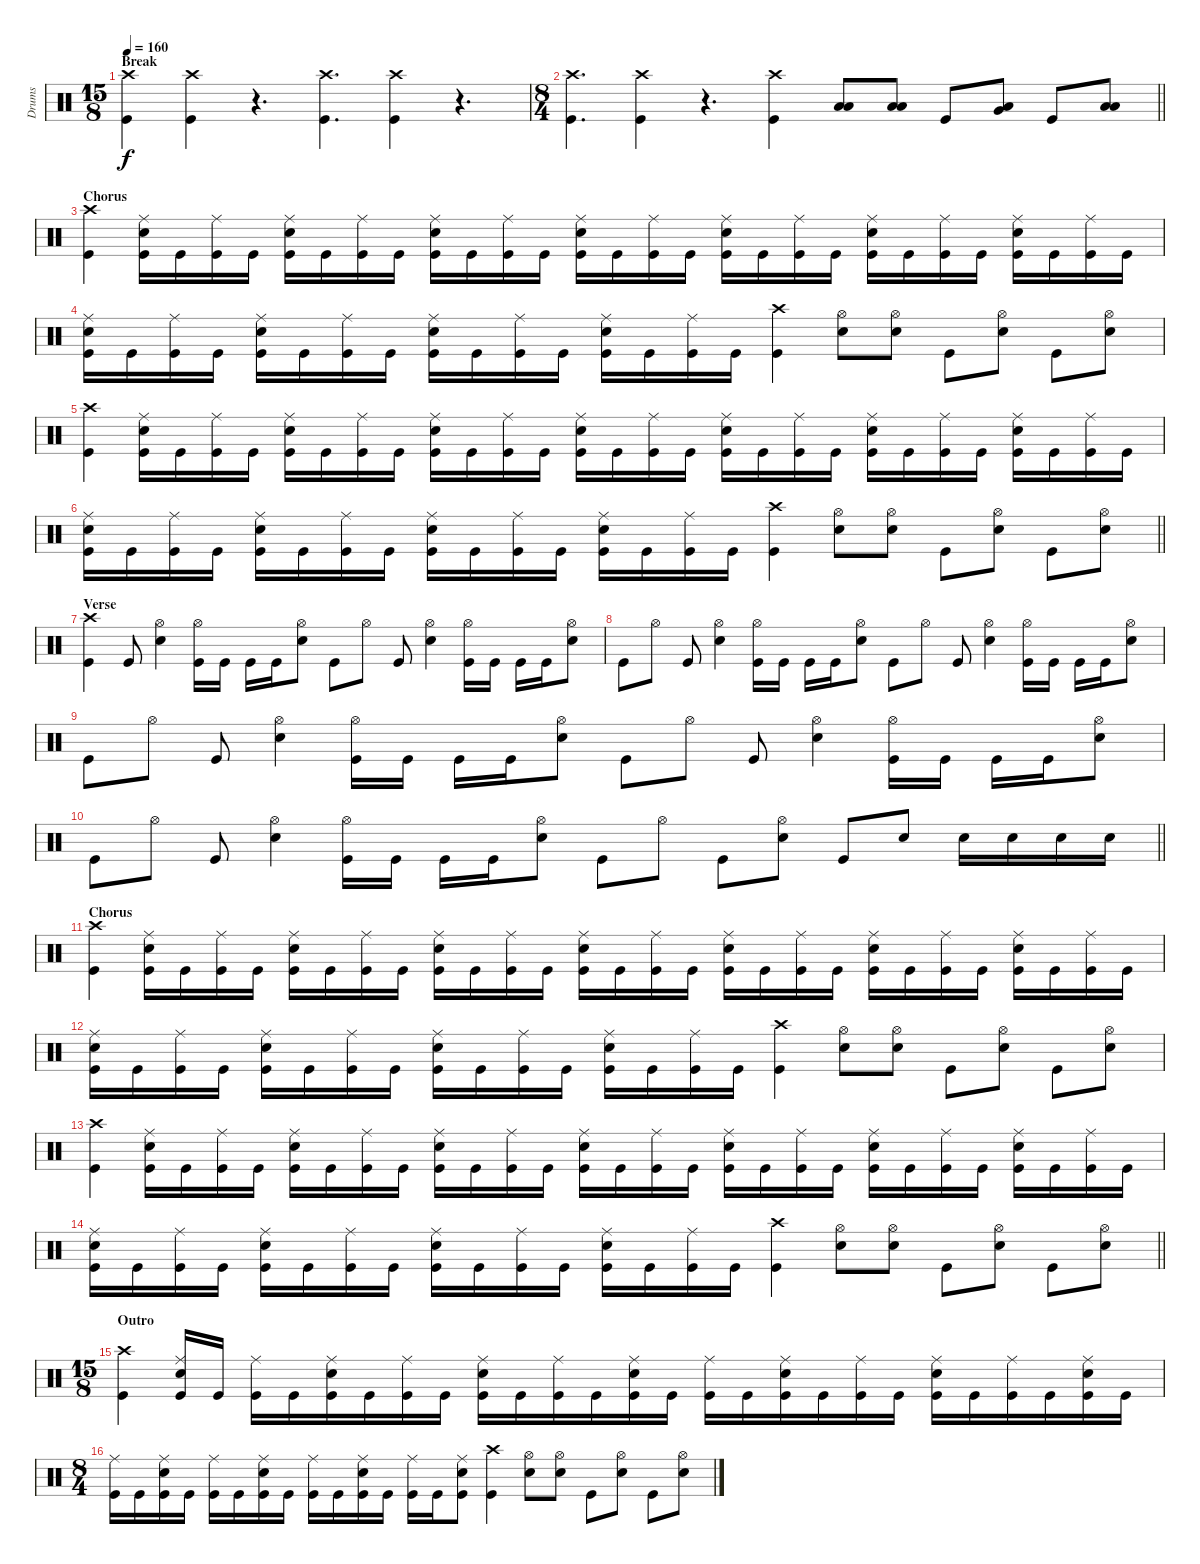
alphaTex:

\track ("Drums" "Drums") {instrument percussion}
\staff {score}
\articulation defaults
\ts (15 8)
\section ("" "Break")
\tempo 160
\clef neutral
\ks c
("Crash high (hit)" "Kick (hit)").4{dy f} ("Crash high (hit)" "Kick (hit)").4 r.4{d} ("Crash high (hit)" "Kick (hit)").4{d} ("Crash high (hit)" "Kick (hit)").4 r.4{d} |
\ts (8 4)
\barLineRight lightlight
("Crash high (hit)" "Kick (hit)").4{d} ("Crash high (hit)" "Kick (hit)").4 r.4{d} ("Crash high (hit)" "Kick (hit)").4 ("Low Floor Tom (hit)" "Low Tom (hit)").8 ("Low Floor Tom (hit)" "Low Tom (hit)").8 "Kick (hit)".8 ("Low Floor Tom (hit)" "Very Low Tom (hit)").8 "Kick (hit)".8 ("Low Floor Tom (hit)" "Low Floor Tom (hit)").8 |
\section ("" "Chorus")
("Crash high (hit)" "Kick (hit)").4 ("Ride (middle)" "Snare (hit) 2" "Kick (hit)").16 "Kick (hit)".16 ("Ride (middle)" "Kick (hit)").16 "Kick (hit)".16 ("Ride (middle)" "Snare (hit) 2" "Kick (hit)").16 "Kick (hit)".16 ("Ride (middle)" "Kick (hit)").16 "Kick (hit)".16 ("Ride (middle)" "Snare (hit) 2" "Kick (hit)").16 "Kick (hit)".16 ("Ride (middle)" "Kick (hit)").16 "Kick (hit)".16 ("Ride (middle)" "Snare (hit) 2" "Kick (hit)").16 "Kick (hit)".16 ("Ride (middle)" "Kick (hit)").16 "Kick (hit)".16 ("Ride (middle)" "Snare (hit) 2" "Kick (hit)").16 "Kick (hit)".16 ("Ride (middle)" "Kick (hit)").16 "Kick (hit)".16 ("Ride (middle)" "Snare (hit) 2" "Kick (hit)").16 "Kick (hit)".16 ("Ride (middle)" "Kick (hit)").16 "Kick (hit)".16 ("Ride (middle)" "Snare (hit) 2" "Kick (hit)").16 "Kick (hit)".16 ("Ride (middle)" "Kick (hit)").16 "Kick (hit)".16 |
("Ride (middle)" "Snare (hit) 2" "Kick (hit)").16 "Kick (hit)".16 ("Ride (middle)" "Kick (hit)").16 "Kick (hit)".16 ("Ride (middle)" "Snare (hit) 2" "Kick (hit)").16 "Kick (hit)".16 ("Ride (middle)" "Kick (hit)").16 "Kick (hit)".16 ("Ride (middle)" "Snare (hit) 2" "Kick (hit)").16 "Kick (hit)".16 ("Ride (middle)" "Kick (hit)").16 "Kick (hit)".16 ("Ride (middle)" "Snare (hit) 2" "Kick (hit)").16 "Kick (hit)".16 ("Ride (middle)" "Kick (hit)").16 "Kick (hit)".16 ("Crash high (hit)" "Kick (hit)").4 ("Hi-Hat (open)" "Snare (hit) 2").8 ("Hi-Hat (open)" "Snare (hit) 2").8 "Kick (hit)".8 ("Hi-Hat (open)" "Snare (hit) 2").8 "Kick (hit)".8 ("Hi-Hat (open)" "Snare (hit) 2").8 |
("Crash high (hit)" "Kick (hit)").4 ("Ride (middle)" "Snare (hit) 2" "Kick (hit)").16 "Kick (hit)".16 ("Ride (middle)" "Kick (hit)").16 "Kick (hit)".16 ("Ride (middle)" "Snare (hit) 2" "Kick (hit)").16 "Kick (hit)".16 ("Ride (middle)" "Kick (hit)").16 "Kick (hit)".16 ("Ride (middle)" "Snare (hit) 2" "Kick (hit)").16 "Kick (hit)".16 ("Ride (middle)" "Kick (hit)").16 "Kick (hit)".16 ("Ride (middle)" "Snare (hit) 2" "Kick (hit)").16 "Kick (hit)".16 ("Ride (middle)" "Kick (hit)").16 "Kick (hit)".16 ("Ride (middle)" "Snare (hit) 2" "Kick (hit)").16 "Kick (hit)".16 ("Ride (middle)" "Kick (hit)").16 "Kick (hit)".16 ("Ride (middle)" "Snare (hit) 2" "Kick (hit)").16 "Kick (hit)".16 ("Ride (middle)" "Kick (hit)").16 "Kick (hit)".16 ("Ride (middle)" "Snare (hit) 2" "Kick (hit)").16 "Kick (hit)".16 ("Ride (middle)" "Kick (hit)").16 "Kick (hit)".16 |
\barLineRight lightlight
("Ride (middle)" "Snare (hit) 2" "Kick (hit)").16 "Kick (hit)".16 ("Ride (middle)" "Kick (hit)").16 "Kick (hit)".16 ("Ride (middle)" "Snare (hit) 2" "Kick (hit)").16 "Kick (hit)".16 ("Ride (middle)" "Kick (hit)").16 "Kick (hit)".16 ("Ride (middle)" "Snare (hit) 2" "Kick (hit)").16 "Kick (hit)".16 ("Ride (middle)" "Kick (hit)").16 "Kick (hit)".16 ("Ride (middle)" "Snare (hit) 2" "Kick (hit)").16 "Kick (hit)".16 ("Ride (middle)" "Kick (hit)").16 "Kick (hit)".16 ("Crash high (hit)" "Kick (hit)").4 ("Hi-Hat (open)" "Snare (hit) 2").8 ("Hi-Hat (open)" "Snare (hit) 2").8 "Kick (hit)".8 ("Hi-Hat (open)" "Snare (hit) 2").8 "Kick (hit)".8 ("Hi-Hat (open)" "Snare (hit) 2").8 |
\section ("" "Verse")
("Crash high (hit)" "Kick (hit)").4 "Kick (hit)".8 ("Hi-Hat (open)" "Snare (hit) 2").4 ("Hi-Hat (open)" "Kick (hit)").16 "Kick (hit)".16 "Kick (hit)".16 "Kick (hit)".16 ("Hi-Hat (open)" "Snare (hit) 2").8 "Kick (hit)".8 "Hi-Hat (open)".8 "Kick (hit)".8 ("Hi-Hat (open)" "Snare (hit) 2").4 ("Hi-Hat (open)" "Kick (hit)").16 "Kick (hit)".16 "Kick (hit)".16 "Kick (hit)".16 ("Hi-Hat (open)" "Snare (hit) 2").8 |
"Kick (hit)".8 "Hi-Hat (open)".8 "Kick (hit)".8 ("Hi-Hat (open)" "Snare (hit) 2").4 ("Hi-Hat (open)" "Kick (hit)").16 "Kick (hit)".16 "Kick (hit)".16 "Kick (hit)".16 ("Hi-Hat (open)" "Snare (hit) 2").8 "Kick (hit)".8 "Hi-Hat (open)".8 "Kick (hit)".8 ("Hi-Hat (open)" "Snare (hit) 2").4 ("Hi-Hat (open)" "Kick (hit)").16 "Kick (hit)".16 "Kick (hit)".16 "Kick (hit)".16 ("Hi-Hat (open)" "Snare (hit) 2").8 |
"Kick (hit)".8 "Hi-Hat (open)".8 "Kick (hit)".8 ("Hi-Hat (open)" "Snare (hit) 2").4 ("Hi-Hat (open)" "Kick (hit)").16 "Kick (hit)".16 "Kick (hit)".16 "Kick (hit)".16 ("Hi-Hat (open)" "Snare (hit) 2").8 "Kick (hit)".8 "Hi-Hat (open)".8 "Kick (hit)".8 ("Hi-Hat (open)" "Snare (hit) 2").4 ("Hi-Hat (open)" "Kick (hit)").16 "Kick (hit)".16 "Kick (hit)".16 "Kick (hit)".16 ("Hi-Hat (open)" "Snare (hit) 2").8 |
\barLineRight lightlight "Kick (hit)".8 "Hi-Hat (open)".8 "Kick (hit)".8
("Hi-Hat (open)" "Snare (hit) 2").4 ("Hi-Hat (open)" "Kick (hit)").16 "Kick (hit)".16 "Kick (hit)".16 "Kick (hit)".16 ("Hi-Hat (open)" "Snare (hit) 2").8 "Kick (hit)".8 "Hi-Hat (open)".8 "Kick (hit)".8 ("Hi-Hat (open)" "Snare (hit) 2").8 "Kick (hit)".8 "Snare (hit) 2".8 "Snare (hit) 2".16 "Snare (hit) 2".16 "Snare (hit) 2".16 "Snare (hit) 2".16 |
\section ("" "Chorus")
("Crash high (hit)" "Kick (hit)").4 ("Ride (middle)" "Snare (hit) 2" "Kick (hit)").16 "Kick (hit)".16 ("Ride (middle)" "Kick (hit)").16 "Kick (hit)".16 ("Ride (middle)" "Snare (hit) 2" "Kick (hit)").16 "Kick (hit)".16 ("Ride (middle)" "Kick (hit)").16 "Kick (hit)".16 ("Ride (middle)" "Snare (hit) 2" "Kick (hit)").16 "Kick (hit)".16 ("Ride (middle)" "Kick (hit)").16 "Kick (hit)".16 ("Ride (middle)" "Snare (hit) 2" "Kick (hit)").16 "Kick (hit)".16 ("Ride (middle)" "Kick (hit)").16 "Kick (hit)".16 ("Ride (middle)" "Snare (hit) 2" "Kick (hit)").16 "Kick (hit)".16 ("Ride (middle)" "Kick (hit)").16 "Kick (hit)".16 ("Ride (middle)" "Snare (hit) 2" "Kick (hit)").16 "Kick (hit)".16 ("Ride (middle)" "Kick (hit)").16 "Kick (hit)".16 ("Ride (middle)" "Snare (hit) 2" "Kick (hit)").16 "Kick (hit)".16 ("Ride (middle)" "Kick (hit)").16 "Kick (hit)".16 |
("Ride (middle)" "Snare (hit) 2" "Kick (hit)").16 "Kick (hit)".16 ("Ride (middle)" "Kick (hit)").16 "Kick (hit)".16 ("Ride (middle)" "Snare (hit) 2" "Kick (hit)").16 "Kick (hit)".16 ("Ride (middle)" "Kick (hit)").16 "Kick (hit)".16 ("Ride (middle)" "Snare (hit) 2" "Kick (hit)").16 "Kick (hit)".16 ("Ride (middle)" "Kick (hit)").16 "Kick (hit)".16 ("Ride (middle)" "Snare (hit) 2" "Kick (hit)").16 "Kick (hit)".16 ("Ride (middle)" "Kick (hit)").16 "Kick (hit)".16 ("Crash high (hit)" "Kick (hit)").4 ("Hi-Hat (open)" "Snare (hit) 2").8 ("Hi-Hat (open)" "Snare (hit) 2").8 "Kick (hit)".8 ("Hi-Hat (open)" "Snare (hit) 2").8 "Kick (hit)".8 ("Hi-Hat (open)" "Snare (hit) 2").8 |
("Crash high (hit)" "Kick (hit)").4 ("Ride (middle)" "Snare (hit) 2" "Kick (hit)").16 "Kick (hit)".16 ("Ride (middle)" "Kick (hit)").16 "Kick (hit)".16 ("Ride (middle)" "Snare (hit) 2" "Kick (hit)").16 "Kick (hit)".16 ("Ride (middle)" "Kick (hit)").16 "Kick (hit)".16 ("Ride (middle)" "Snare (hit) 2" "Kick (hit)").16 "Kick (hit)".16 ("Ride (middle)" "Kick (hit)").16 "Kick (hit)".16 ("Ride (middle)" "Snare (hit) 2" "Kick (hit)").16 "Kick (hit)".16 ("Ride (middle)" "Kick (hit)").16 "Kick (hit)".16 ("Ride (middle)" "Snare (hit) 2" "Kick (hit)").16 "Kick (hit)".16 ("Ride (middle)" "Kick (hit)").16 "Kick (hit)".16 ("Ride (middle)" "Snare (hit) 2" "Kick (hit)").16 "Kick (hit)".16 ("Ride (middle)" "Kick (hit)").16 "Kick (hit)".16 ("Ride (middle)" "Snare (hit) 2" "Kick (hit)").16 "Kick (hit)".16 ("Ride (middle)" "Kick (hit)").16 "Kick (hit)".16 |
\barLineRight lightlight
("Ride (middle)" "Snare (hit) 2" "Kick (hit)").16 "Kick (hit)".16 ("Ride (middle)" "Kick (hit)").16 "Kick (hit)".16 ("Ride (middle)" "Snare (hit) 2" "Kick (hit)").16 "Kick (hit)".16 ("Ride (middle)" "Kick (hit)").16 "Kick (hit)".16 ("Ride (middle)" "Snare (hit) 2" "Kick (hit)").16 "Kick (hit)".16 ("Ride (middle)" "Kick (hit)").16 "Kick (hit)".16 ("Ride (middle)" "Snare (hit) 2" "Kick (hit)").16 "Kick (hit)".16 ("Ride (middle)" "Kick (hit)").16 "Kick (hit)".16 ("Crash high (hit)" "Kick (hit)").4 ("Hi-Hat (open)" "Snare (hit) 2").8 ("Hi-Hat (open)" "Snare (hit) 2").8 "Kick (hit)".8 ("Hi-Hat (open)" "Snare (hit) 2").8 "Kick (hit)".8 ("Hi-Hat (open)" "Snare (hit) 2").8 |
\ts (15 8)
\section ("" "Outro")
("Crash high (hit)" "Kick (hit)").4 ("Ride (middle)" "Snare (hit) 2" "Kick (hit)").16 "Kick (hit)".16 ("Ride (middle)" "Kick (hit)").16 "Kick (hit)".16 ("Ride (middle)" "Snare (hit) 2" "Kick (hit)").16 "Kick (hit)".16 ("Ride (middle)" "Kick (hit)").16 "Kick (hit)".16 ("Ride (middle)" "Snare (hit) 2" "Kick (hit)").16 "Kick (hit)".16 ("Ride (middle)" "Kick (hit)").16 "Kick (hit)".16 ("Ride (middle)" "Snare (hit) 2" "Kick (hit)").16 "Kick (hit)".16 ("Ride (middle)" "Kick (hit)").16 "Kick (hit)".16 ("Ride (middle)" "Snare (hit) 2" "Kick (hit)").16 "Kick (hit)".16 ("Ride (middle)" "Kick (hit)").16 "Kick (hit)".16 ("Ride (middle)" "Snare (hit) 2" "Kick (hit)").16 "Kick (hit)".16 ("Ride (middle)" "Kick (hit)").16 "Kick (hit)".16 ("Ride (middle)" "Snare (hit) 2" "Kick (hit)").16 "Kick (hit)".16 |
\ts (8 4)
("Ride (middle)" "Kick (hit)").16 "Kick (hit)".16 ("Ride (middle)" "Snare (hit) 2" "Kick (hit)").16 "Kick (hit)".16 ("Ride (middle)" "Kick (hit)").16 "Kick (hit)".16 ("Ride (middle)" "Snare (hit) 2" "Kick (hit)").16 "Kick (hit)".16 ("Ride (middle)" "Kick (hit)").16 "Kick (hit)".16 ("Ride (middle)" "Snare (hit) 2" "Kick (hit)").16 "Kick (hit)".16 ("Ride (middle)" "Kick (hit)").16 "Kick (hit)".16 ("Ride (middle)" "Snare (hit) 2" "Kick (hit)").8 ("Crash high (hit)" "Kick (hit)").4 ("Hi-Hat (open)" "Snare (hit) 2").8 ("Hi-Hat (open)" "Snare (hit) 2").8 "Kick (hit)".8 ("Hi-Hat (open)" "Snare (hit) 2").8 "Kick (hit)".8 ("Hi-Hat (open)" "Snare (hit) 2").8
